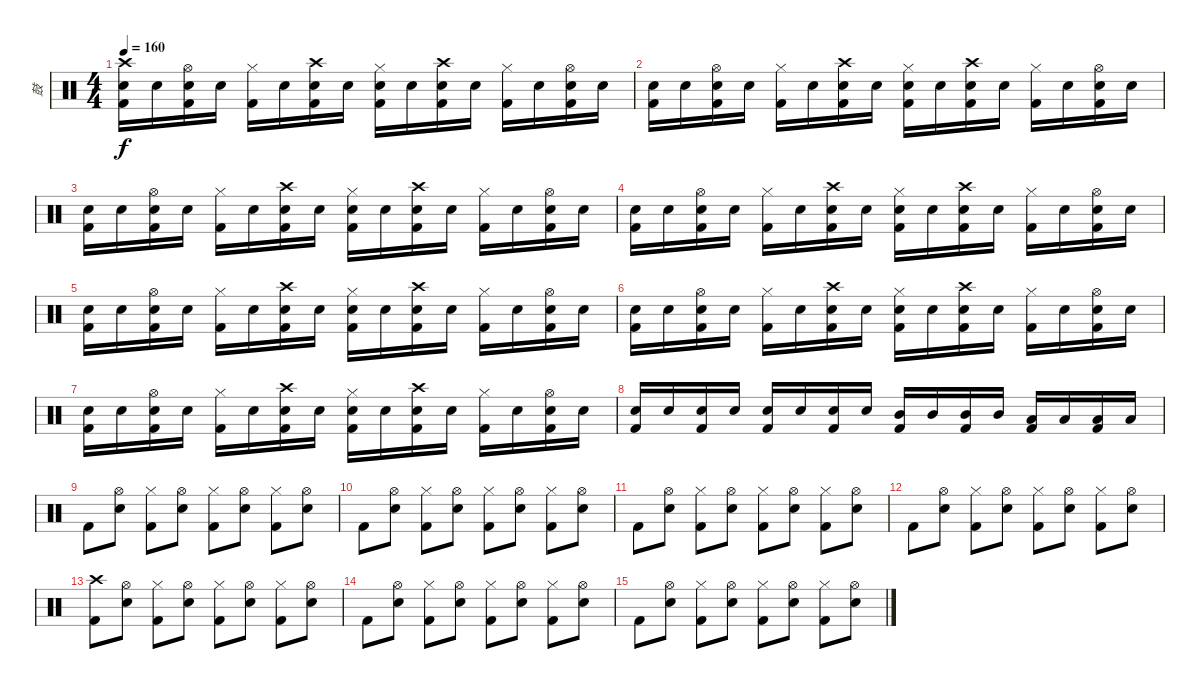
\track ("鼓" "鼓") {instrument percussion}
\staff {score}
\articulation defaults
\ts (4 4)
\tempo 160
\clef neutral
\ks c
("Crash high (hit)" "Electric Snare (hit)" "Kick (hit) 2").16{dy f} "Electric Snare (hit)".16 ("Hi-Hat (open)" "Electric Snare (hit)" "Kick (hit) 2").16 "Electric Snare (hit)".16 ("Hi-Hat (closed)" "Kick (hit) 2").16 "Electric Snare (hit)".16 ("Crash high (hit)" "Electric Snare (hit)" "Kick (hit) 2").16 "Electric Snare (hit)".16 ("Hi-Hat (closed)" "Electric Snare (hit)" "Kick (hit) 2").16 "Electric Snare (hit)".16 ("Crash high (hit)" "Electric Snare (hit)" "Kick (hit) 2").16 "Electric Snare (hit)".16 ("Hi-Hat (closed)" "Kick (hit) 2").16 "Electric Snare (hit)".16 ("Hi-Hat (open)" "Electric Snare (hit)" "Kick (hit) 2").16 "Electric Snare (hit)".16 |
("Electric Snare (hit)" "Kick (hit) 2").16 "Electric Snare (hit)".16 ("Hi-Hat (open)" "Electric Snare (hit)" "Kick (hit) 2").16 "Electric Snare (hit)".16 ("Hi-Hat (closed)" "Kick (hit) 2").16 "Electric Snare (hit)".16 ("Crash high (hit)" "Electric Snare (hit)" "Kick (hit) 2").16 "Electric Snare (hit)".16 ("Hi-Hat (closed)" "Electric Snare (hit)" "Kick (hit) 2").16 "Electric Snare (hit)".16 ("Crash high (hit)" "Electric Snare (hit)" "Kick (hit) 2").16 "Electric Snare (hit)".16 ("Hi-Hat (closed)" "Kick (hit) 2").16 "Electric Snare (hit)".16 ("Hi-Hat (open)" "Electric Snare (hit)" "Kick (hit) 2").16 "Electric Snare (hit)".16 |
("Electric Snare (hit)" "Kick (hit) 2").16 "Electric Snare (hit)".16 ("Hi-Hat (open)" "Electric Snare (hit)" "Kick (hit) 2").16 "Electric Snare (hit)".16 ("Hi-Hat (closed)" "Kick (hit) 2").16 "Electric Snare (hit)".16 ("Crash high (hit)" "Electric Snare (hit)" "Kick (hit) 2").16 "Electric Snare (hit)".16 ("Hi-Hat (closed)" "Electric Snare (hit)" "Kick (hit) 2").16 "Electric Snare (hit)".16 ("Crash high (hit)" "Electric Snare (hit)" "Kick (hit) 2").16 "Electric Snare (hit)".16 ("Hi-Hat (closed)" "Kick (hit) 2").16 "Electric Snare (hit)".16 ("Hi-Hat (open)" "Electric Snare (hit)" "Kick (hit) 2").16 "Electric Snare (hit)".16 |
("Electric Snare (hit)" "Kick (hit) 2").16 "Electric Snare (hit)".16 ("Hi-Hat (open)" "Electric Snare (hit)" "Kick (hit) 2").16 "Electric Snare (hit)".16 ("Hi-Hat (closed)" "Kick (hit) 2").16 "Electric Snare (hit)".16 ("Crash high (hit)" "Electric Snare (hit)" "Kick (hit) 2").16 "Electric Snare (hit)".16 ("Hi-Hat (closed)" "Electric Snare (hit)" "Kick (hit) 2").16 "Electric Snare (hit)".16 ("Crash high (hit)" "Electric Snare (hit)" "Kick (hit) 2").16 "Electric Snare (hit)".16 ("Hi-Hat (closed)" "Kick (hit) 2").16 "Electric Snare (hit)".16 ("Hi-Hat (open)" "Electric Snare (hit)" "Kick (hit) 2").16 "Electric Snare (hit)".16 |
("Electric Snare (hit)" "Kick (hit) 2").16 "Electric Snare (hit)".16 ("Hi-Hat (open)" "Electric Snare (hit)" "Kick (hit) 2").16 "Electric Snare (hit)".16 ("Hi-Hat (closed)" "Kick (hit) 2").16 "Electric Snare (hit)".16 ("Crash high (hit)" "Electric Snare (hit)" "Kick (hit) 2").16 "Electric Snare (hit)".16 ("Hi-Hat (closed)" "Electric Snare (hit)" "Kick (hit) 2").16 "Electric Snare (hit)".16 ("Crash high (hit)" "Electric Snare (hit)" "Kick (hit) 2").16 "Electric Snare (hit)".16 ("Hi-Hat (closed)" "Kick (hit) 2").16 "Electric Snare (hit)".16 ("Hi-Hat (open)" "Electric Snare (hit)" "Kick (hit) 2").16 "Electric Snare (hit)".16 |
("Electric Snare (hit)" "Kick (hit) 2").16 "Electric Snare (hit)".16 ("Hi-Hat (open)" "Electric Snare (hit)" "Kick (hit) 2").16 "Electric Snare (hit)".16 ("Hi-Hat (closed)" "Kick (hit) 2").16 "Electric Snare (hit)".16 ("Crash high (hit)" "Electric Snare (hit)" "Kick (hit) 2").16 "Electric Snare (hit)".16 ("Hi-Hat (closed)" "Electric Snare (hit)" "Kick (hit) 2").16 "Electric Snare (hit)".16 ("Crash high (hit)" "Electric Snare (hit)" "Kick (hit) 2").16 "Electric Snare (hit)".16 ("Hi-Hat (closed)" "Kick (hit) 2").16 "Electric Snare (hit)".16 ("Hi-Hat (open)" "Electric Snare (hit)" "Kick (hit) 2").16 "Electric Snare (hit)".16 |
("Electric Snare (hit)" "Kick (hit) 2").16 "Electric Snare (hit)".16 ("Hi-Hat (open)" "Electric Snare (hit)" "Kick (hit) 2").16 "Electric Snare (hit)".16 ("Hi-Hat (closed)" "Kick (hit) 2").16 "Electric Snare (hit)".16 ("Crash high (hit)" "Electric Snare (hit)" "Kick (hit) 2").16 "Electric Snare (hit)".16 ("Hi-Hat (closed)" "Electric Snare (hit)" "Kick (hit) 2").16 "Electric Snare (hit)".16 ("Crash high (hit)" "Electric Snare (hit)" "Kick (hit) 2").16 "Electric Snare (hit)".16 ("Hi-Hat (closed)" "Kick (hit) 2").16 "Electric Snare (hit)".16 ("Hi-Hat (open)" "Electric Snare (hit)" "Kick (hit) 2").16 "Electric Snare (hit)".16 |
("Electric Snare (hit)" "Kick (hit) 2").16 "Electric Snare (hit)".16 ("Electric Snare (hit)" "Kick (hit) 2").16 "Electric Snare (hit)".16 ("Snare (hit) 2" "Kick (hit) 2").16 "Snare (hit) 2".16 ("Snare (hit) 2" "Kick (hit) 2").16 "Snare (hit) 2".16 ("Mid Tom (hit)" "Kick (hit) 2").16 "Mid Tom (hit)".16 ("Mid Tom (hit)" "Kick (hit) 2").16 "Mid Tom (hit)".16 ("Low Tom (hit)" "Kick (hit) 2").16 "Low Tom (hit)".16 ("Low Tom (hit)" "Kick (hit) 2").16 "Low Tom (hit)".16 |
"Kick (hit) 2".8 ("Hi-Hat (open)" "Electric Snare (hit)").8 ("Hi-Hat (closed)" "Kick (hit) 2").8 ("Hi-Hat (open)" "Electric Snare (hit)").8 ("Hi-Hat (closed)" "Kick (hit) 2").8 ("Hi-Hat (open)" "Electric Snare (hit)").8 ("Hi-Hat (closed)" "Kick (hit) 2").8 ("Hi-Hat (open)" "Electric Snare (hit)").8 |
"Kick (hit) 2".8 ("Hi-Hat (open)" "Electric Snare (hit)").8 ("Hi-Hat (closed)" "Kick (hit) 2").8 ("Hi-Hat (open)" "Electric Snare (hit)").8 ("Hi-Hat (closed)" "Kick (hit) 2").8 ("Hi-Hat (open)" "Electric Snare (hit)").8 ("Hi-Hat (closed)" "Kick (hit) 2").8 ("Hi-Hat (open)" "Electric Snare (hit)").8 |
"Kick (hit) 2".8 ("Hi-Hat (open)" "Electric Snare (hit)").8 ("Hi-Hat (closed)" "Kick (hit) 2").8 ("Hi-Hat (open)" "Electric Snare (hit)").8 ("Hi-Hat (closed)" "Kick (hit) 2").8 ("Hi-Hat (open)" "Electric Snare (hit)").8 ("Hi-Hat (closed)" "Kick (hit) 2").8 ("Hi-Hat (open)" "Electric Snare (hit)").8 |
"Kick (hit) 2".8 ("Hi-Hat (open)" "Electric Snare (hit)").8 ("Hi-Hat (closed)" "Kick (hit) 2").8 ("Hi-Hat (open)" "Electric Snare (hit)").8 ("Hi-Hat (closed)" "Kick (hit) 2").8 ("Hi-Hat (open)" "Electric Snare (hit)").8 ("Hi-Hat (closed)" "Kick (hit) 2").8 ("Hi-Hat (open)" "Electric Snare (hit)").8 |
("Crash high (hit)" "Kick (hit) 2").8 ("Hi-Hat (open)" "Electric Snare (hit)").8 ("Hi-Hat (closed)" "Kick (hit) 2").8 ("Hi-Hat (open)" "Electric Snare (hit)").8 ("Hi-Hat (closed)" "Kick (hit) 2").8 ("Hi-Hat (open)" "Electric Snare (hit)").8 ("Hi-Hat (closed)" "Kick (hit) 2").8 ("Hi-Hat (open)" "Electric Snare (hit)").8 |
"Kick (hit) 2".8 ("Hi-Hat (open)" "Electric Snare (hit)").8 ("Hi-Hat (closed)" "Kick (hit) 2").8 ("Hi-Hat (open)" "Electric Snare (hit)").8 ("Hi-Hat (closed)" "Kick (hit) 2").8 ("Hi-Hat (open)" "Electric Snare (hit)").8 ("Hi-Hat (closed)" "Kick (hit) 2").8 ("Hi-Hat (open)" "Electric Snare (hit)").8 |
"Kick (hit) 2".8 ("Hi-Hat (open)" "Electric Snare (hit)").8 ("Hi-Hat (closed)" "Kick (hit) 2").8 ("Hi-Hat (open)" "Electric Snare (hit)").8 ("Hi-Hat (closed)" "Kick (hit) 2").8 ("Hi-Hat (open)" "Electric Snare (hit)").8 ("Hi-Hat (closed)" "Kick (hit) 2").8 ("Hi-Hat (open)" "Electric Snare (hit)").8
